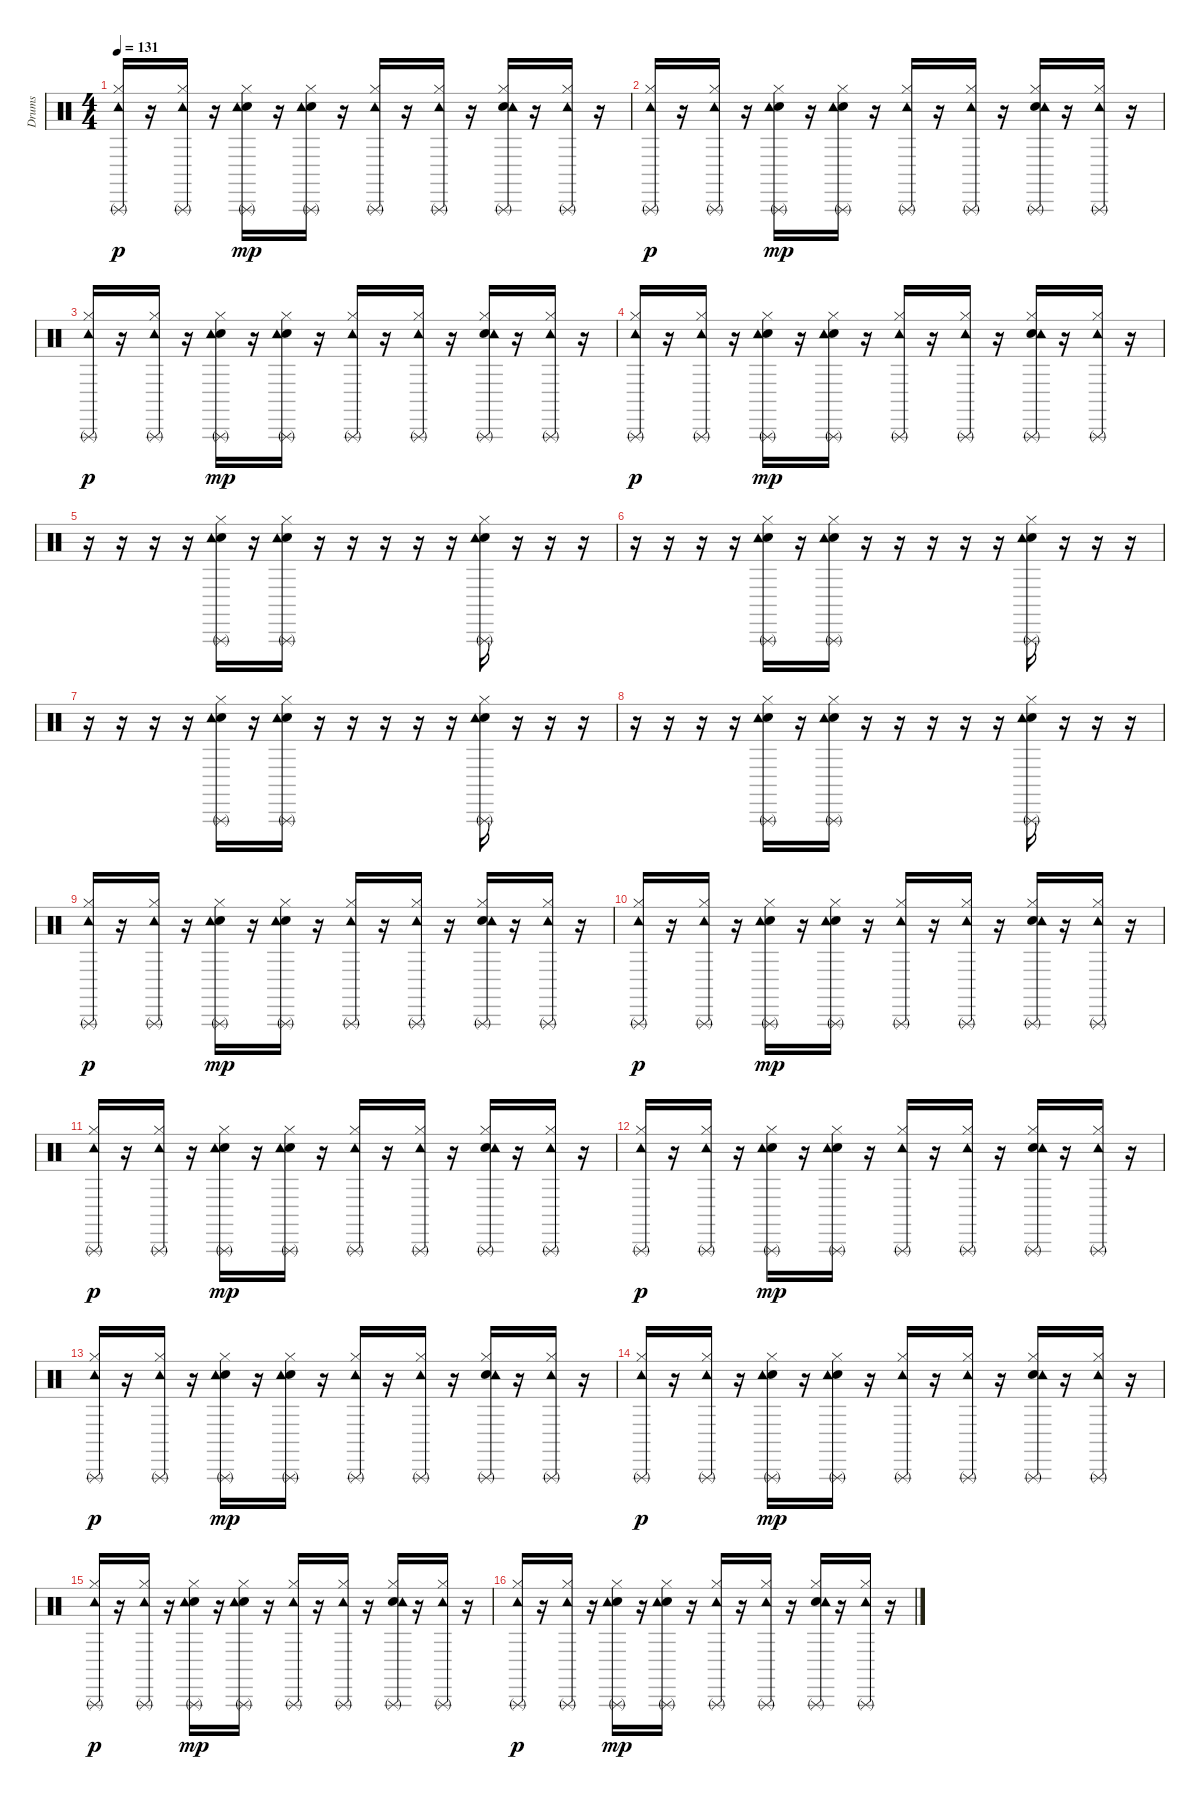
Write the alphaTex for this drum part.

\track ("Drums" "Drums") {instrument percussion}
\staff {score}
\articulation defaults
\ts (4 4)
\tempo 131
\clef neutral
\ks c
("Tambourine (hit)" "Hi-Hat (closed)" "Triangle (rnute)").16{dy p} r.16 ("Tambourine (hit)" "Hi-Hat (closed)" "Triangle (rnute)").16 r.16 ("Electric Snare (hit)" "Tambourine (hit)" "Hi-Hat (closed)" "Triangle (rnute)").16{dy mp} r.16 ("Electric Snare (hit)" "Tambourine (hit)" "Hi-Hat (closed)" "Triangle (rnute)").16 r.16 ("Tambourine (hit)" "Hi-Hat (closed)" "Triangle (rnute)").16 r.16 ("Tambourine (hit)" "Hi-Hat (closed)" "Triangle (rnute)").16 r.16 ("Electric Snare (hit)" "Tambourine (hit)" "Hi-Hat (closed)" "Triangle (rnute)").16 r.16 ("Tambourine (hit)" "Hi-Hat (closed)" "Triangle (rnute)").16 r.16 |
("Tambourine (hit)" "Hi-Hat (closed)" "Triangle (rnute)").16{dy p} r.16 ("Tambourine (hit)" "Hi-Hat (closed)" "Triangle (rnute)").16 r.16 ("Electric Snare (hit)" "Tambourine (hit)" "Hi-Hat (closed)" "Triangle (rnute)").16{dy mp} r.16 ("Electric Snare (hit)" "Tambourine (hit)" "Hi-Hat (closed)" "Triangle (rnute)").16 r.16 ("Tambourine (hit)" "Hi-Hat (closed)" "Triangle (rnute)").16 r.16 ("Tambourine (hit)" "Hi-Hat (closed)" "Triangle (rnute)").16 r.16 ("Electric Snare (hit)" "Tambourine (hit)" "Hi-Hat (closed)" "Triangle (rnute)").16 r.16 ("Tambourine (hit)" "Hi-Hat (closed)" "Triangle (rnute)").16 r.16 |
("Tambourine (hit)" "Hi-Hat (closed)" "Triangle (rnute)").16{dy p} r.16 ("Tambourine (hit)" "Hi-Hat (closed)" "Triangle (rnute)").16 r.16 ("Electric Snare (hit)" "Tambourine (hit)" "Hi-Hat (closed)" "Triangle (rnute)").16{dy mp} r.16 ("Electric Snare (hit)" "Tambourine (hit)" "Hi-Hat (closed)" "Triangle (rnute)").16 r.16 ("Tambourine (hit)" "Hi-Hat (closed)" "Triangle (rnute)").16 r.16 ("Tambourine (hit)" "Hi-Hat (closed)" "Triangle (rnute)").16 r.16 ("Electric Snare (hit)" "Tambourine (hit)" "Hi-Hat (closed)" "Triangle (rnute)").16 r.16 ("Tambourine (hit)" "Hi-Hat (closed)" "Triangle (rnute)").16 r.16 |
("Tambourine (hit)" "Hi-Hat (closed)" "Triangle (rnute)").16{dy p} r.16 ("Tambourine (hit)" "Hi-Hat (closed)" "Triangle (rnute)").16 r.16 ("Electric Snare (hit)" "Tambourine (hit)" "Hi-Hat (closed)" "Triangle (rnute)").16{dy mp} r.16 ("Electric Snare (hit)" "Tambourine (hit)" "Hi-Hat (closed)" "Triangle (rnute)").16 r.16 ("Tambourine (hit)" "Hi-Hat (closed)" "Triangle (rnute)").16 r.16 ("Tambourine (hit)" "Hi-Hat (closed)" "Triangle (rnute)").16 r.16 ("Electric Snare (hit)" "Tambourine (hit)" "Hi-Hat (closed)" "Triangle (rnute)").16 r.16 ("Tambourine (hit)" "Hi-Hat (closed)" "Triangle (rnute)").16 r.16 |
r.16 r.16 r.16 r.16 ("Electric Snare (hit)" "Tambourine (hit)" "Hi-Hat (closed)" "Triangle (rnute)").16 r.16 ("Electric Snare (hit)" "Tambourine (hit)" "Hi-Hat (closed)" "Triangle (rnute)").16 r.16 r.16 r.16 r.16 r.16 ("Electric Snare (hit)" "Tambourine (hit)" "Hi-Hat (closed)" "Triangle (rnute)").16 r.16 r.16 r.16 |
r.16 r.16 r.16 r.16 ("Electric Snare (hit)" "Tambourine (hit)" "Hi-Hat (closed)" "Triangle (rnute)").16 r.16 ("Electric Snare (hit)" "Tambourine (hit)" "Hi-Hat (closed)" "Triangle (rnute)").16 r.16 r.16 r.16 r.16 r.16 ("Electric Snare (hit)" "Tambourine (hit)" "Hi-Hat (closed)" "Triangle (rnute)").16 r.16 r.16 r.16 |
r.16 r.16 r.16 r.16 ("Electric Snare (hit)" "Tambourine (hit)" "Hi-Hat (closed)" "Triangle (rnute)").16 r.16 ("Electric Snare (hit)" "Tambourine (hit)" "Hi-Hat (closed)" "Triangle (rnute)").16 r.16 r.16 r.16 r.16 r.16 ("Electric Snare (hit)" "Tambourine (hit)" "Hi-Hat (closed)" "Triangle (rnute)").16 r.16 r.16 r.16 |
r.16 r.16 r.16 r.16 ("Electric Snare (hit)" "Tambourine (hit)" "Hi-Hat (closed)" "Triangle (rnute)").16 r.16 ("Electric Snare (hit)" "Tambourine (hit)" "Hi-Hat (closed)" "Triangle (rnute)").16 r.16 r.16 r.16 r.16 r.16 ("Electric Snare (hit)" "Tambourine (hit)" "Hi-Hat (closed)" "Triangle (rnute)").16 r.16 r.16 r.16 |
("Tambourine (hit)" "Hi-Hat (closed)" "Triangle (rnute)").16{dy p} r.16 ("Tambourine (hit)" "Hi-Hat (closed)" "Triangle (rnute)").16 r.16 ("Electric Snare (hit)" "Tambourine (hit)" "Hi-Hat (closed)" "Triangle (rnute)").16{dy mp} r.16 ("Electric Snare (hit)" "Tambourine (hit)" "Hi-Hat (closed)" "Triangle (rnute)").16 r.16 ("Tambourine (hit)" "Hi-Hat (closed)" "Triangle (rnute)").16 r.16 ("Tambourine (hit)" "Hi-Hat (closed)" "Triangle (rnute)").16 r.16 ("Electric Snare (hit)" "Tambourine (hit)" "Hi-Hat (closed)" "Triangle (rnute)").16 r.16 ("Tambourine (hit)" "Hi-Hat (closed)" "Triangle (rnute)").16 r.16 |
("Tambourine (hit)" "Hi-Hat (closed)" "Triangle (rnute)").16{dy p} r.16 ("Tambourine (hit)" "Hi-Hat (closed)" "Triangle (rnute)").16 r.16 ("Electric Snare (hit)" "Tambourine (hit)" "Hi-Hat (closed)" "Triangle (rnute)").16{dy mp} r.16 ("Electric Snare (hit)" "Tambourine (hit)" "Hi-Hat (closed)" "Triangle (rnute)").16 r.16 ("Tambourine (hit)" "Hi-Hat (closed)" "Triangle (rnute)").16 r.16 ("Tambourine (hit)" "Hi-Hat (closed)" "Triangle (rnute)").16 r.16 ("Electric Snare (hit)" "Tambourine (hit)" "Hi-Hat (closed)" "Triangle (rnute)").16 r.16 ("Tambourine (hit)" "Hi-Hat (closed)" "Triangle (rnute)").16 r.16 |
("Tambourine (hit)" "Hi-Hat (closed)" "Triangle (rnute)").16{dy p} r.16 ("Tambourine (hit)" "Hi-Hat (closed)" "Triangle (rnute)").16 r.16 ("Electric Snare (hit)" "Tambourine (hit)" "Hi-Hat (closed)" "Triangle (rnute)").16{dy mp} r.16 ("Electric Snare (hit)" "Tambourine (hit)" "Hi-Hat (closed)" "Triangle (rnute)").16 r.16 ("Tambourine (hit)" "Hi-Hat (closed)" "Triangle (rnute)").16 r.16 ("Tambourine (hit)" "Hi-Hat (closed)" "Triangle (rnute)").16 r.16 ("Electric Snare (hit)" "Tambourine (hit)" "Hi-Hat (closed)" "Triangle (rnute)").16 r.16 ("Tambourine (hit)" "Hi-Hat (closed)" "Triangle (rnute)").16 r.16 |
("Tambourine (hit)" "Hi-Hat (closed)" "Triangle (rnute)").16{dy p} r.16 ("Tambourine (hit)" "Hi-Hat (closed)" "Triangle (rnute)").16 r.16 ("Electric Snare (hit)" "Tambourine (hit)" "Hi-Hat (closed)" "Triangle (rnute)").16{dy mp} r.16 ("Electric Snare (hit)" "Tambourine (hit)" "Hi-Hat (closed)" "Triangle (rnute)").16 r.16 ("Tambourine (hit)" "Hi-Hat (closed)" "Triangle (rnute)").16 r.16 ("Tambourine (hit)" "Hi-Hat (closed)" "Triangle (rnute)").16 r.16 ("Electric Snare (hit)" "Tambourine (hit)" "Hi-Hat (closed)" "Triangle (rnute)").16 r.16 ("Tambourine (hit)" "Hi-Hat (closed)" "Triangle (rnute)").16 r.16 |
("Tambourine (hit)" "Hi-Hat (closed)" "Triangle (rnute)").16{dy p} r.16 ("Tambourine (hit)" "Hi-Hat (closed)" "Triangle (rnute)").16 r.16 ("Electric Snare (hit)" "Tambourine (hit)" "Hi-Hat (closed)" "Triangle (rnute)").16{dy mp} r.16 ("Electric Snare (hit)" "Tambourine (hit)" "Hi-Hat (closed)" "Triangle (rnute)").16 r.16 ("Tambourine (hit)" "Hi-Hat (closed)" "Triangle (rnute)").16 r.16 ("Tambourine (hit)" "Hi-Hat (closed)" "Triangle (rnute)").16 r.16 ("Electric Snare (hit)" "Tambourine (hit)" "Hi-Hat (closed)" "Triangle (rnute)").16 r.16 ("Tambourine (hit)" "Hi-Hat (closed)" "Triangle (rnute)").16 r.16 |
("Tambourine (hit)" "Hi-Hat (closed)" "Triangle (rnute)").16{dy p} r.16 ("Tambourine (hit)" "Hi-Hat (closed)" "Triangle (rnute)").16 r.16 ("Electric Snare (hit)" "Tambourine (hit)" "Hi-Hat (closed)" "Triangle (rnute)").16{dy mp} r.16 ("Electric Snare (hit)" "Tambourine (hit)" "Hi-Hat (closed)" "Triangle (rnute)").16 r.16 ("Tambourine (hit)" "Hi-Hat (closed)" "Triangle (rnute)").16 r.16 ("Tambourine (hit)" "Hi-Hat (closed)" "Triangle (rnute)").16 r.16 ("Electric Snare (hit)" "Tambourine (hit)" "Hi-Hat (closed)" "Triangle (rnute)").16 r.16 ("Tambourine (hit)" "Hi-Hat (closed)" "Triangle (rnute)").16 r.16 |
("Tambourine (hit)" "Hi-Hat (closed)" "Triangle (rnute)").16{dy p} r.16 ("Tambourine (hit)" "Hi-Hat (closed)" "Triangle (rnute)").16 r.16 ("Electric Snare (hit)" "Tambourine (hit)" "Hi-Hat (closed)" "Triangle (rnute)").16{dy mp} r.16 ("Electric Snare (hit)" "Tambourine (hit)" "Hi-Hat (closed)" "Triangle (rnute)").16 r.16 ("Tambourine (hit)" "Hi-Hat (closed)" "Triangle (rnute)").16 r.16 ("Tambourine (hit)" "Hi-Hat (closed)" "Triangle (rnute)").16 r.16 ("Electric Snare (hit)" "Tambourine (hit)" "Hi-Hat (closed)" "Triangle (rnute)").16 r.16 ("Tambourine (hit)" "Hi-Hat (closed)" "Triangle (rnute)").16 r.16 |
("Tambourine (hit)" "Hi-Hat (closed)" "Triangle (rnute)").16{dy p} r.16 ("Tambourine (hit)" "Hi-Hat (closed)" "Triangle (rnute)").16 r.16 ("Electric Snare (hit)" "Tambourine (hit)" "Hi-Hat (closed)" "Triangle (rnute)").16{dy mp} r.16 ("Electric Snare (hit)" "Tambourine (hit)" "Hi-Hat (closed)" "Triangle (rnute)").16 r.16 ("Tambourine (hit)" "Hi-Hat (closed)" "Triangle (rnute)").16 r.16 ("Tambourine (hit)" "Hi-Hat (closed)" "Triangle (rnute)").16 r.16 ("Electric Snare (hit)" "Tambourine (hit)" "Hi-Hat (closed)" "Triangle (rnute)").16 r.16 ("Tambourine (hit)" "Hi-Hat (closed)" "Triangle (rnute)").16 r.16
